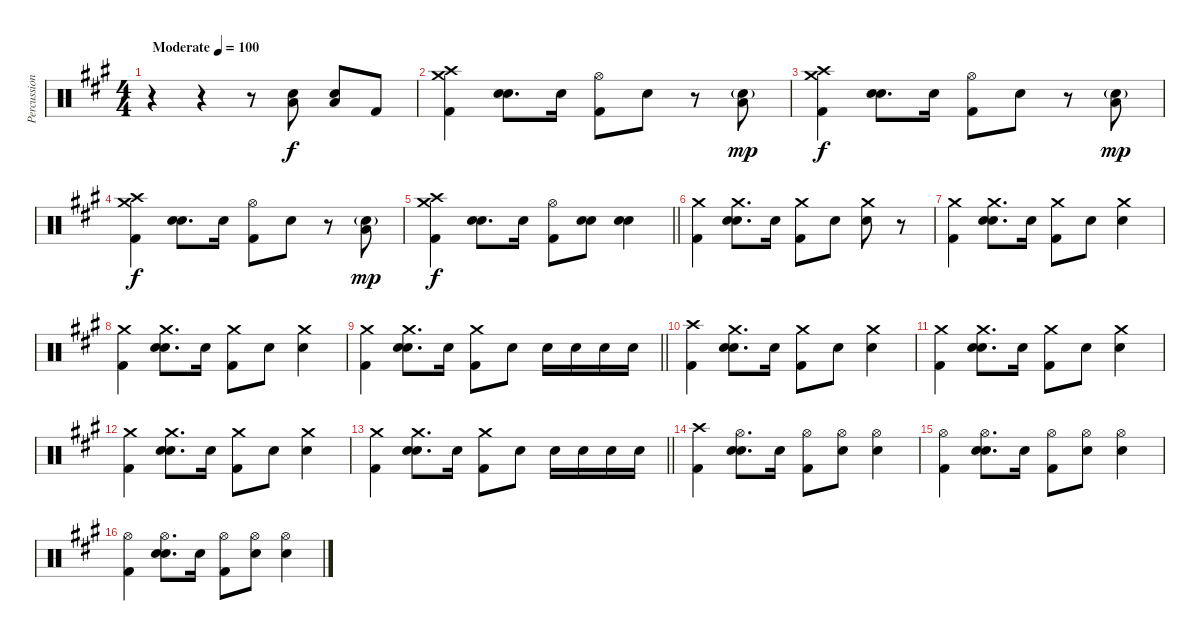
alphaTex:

\track ("Percussion" "Percussion") {instrument percussion}
\staff {score}
\articulation defaults
\ts (4 4)
\tempo (100 "Moderate")
\clef neutral
\ks f#minor
r.4{dy f} r.4 r.8 ("Low Tom (hit)" "Snare (hit) 2").8 ("Low Tom (hit)" "Snare (hit) 2").8 "Kick (hit) 2".8 |
("Crash high (hit)" "Crash medium (hit)" "Kick (hit) 2").4 ("Snare (hit) 2" "Snare (hit) 2").8{d} "Snare (hit) 2".16 ("Hi-Hat (open)" "Kick (hit) 2").8 "Snare (hit) 2".8 r.8 ("Snare (hit) 2"{g} "Low Tom (hit)").8{dy mp} |
("Crash high (hit)" "Crash medium (hit)" "Kick (hit) 2").4{dy f} ("Snare (hit) 2" "Snare (hit) 2").8{d} "Snare (hit) 2".16 ("Hi-Hat (open)" "Kick (hit) 2").8 "Snare (hit) 2".8 r.8 ("Snare (hit) 2"{g} "Low Tom (hit)").8{dy mp} |
("Crash high (hit)" "Crash medium (hit)" "Kick (hit) 2").4{dy f} ("Snare (hit) 2" "Snare (hit) 2").8{d} "Snare (hit) 2".16 ("Hi-Hat (open)" "Kick (hit) 2").8 "Snare (hit) 2".8 r.8 ("Snare (hit) 2"{g} "Low Tom (hit)").8{dy mp} |
\barLineRight lightlight
("Crash high (hit)" "Crash medium (hit)" "Kick (hit) 2").4{dy f} ("Snare (hit) 2" "Snare (hit) 2").8{d} "Snare (hit) 2".16 ("Hi-Hat (open)" "Kick (hit) 2").8 ("Snare (hit) 2" "Snare (hit) 2").8 ("Snare (hit) 2" "Snare (hit) 2").4 |
("Crash medium (hit)" "Kick (hit) 2").4 ("Crash medium (hit)" "Snare (hit) 2" "Snare (hit) 2").8{d} "Snare (hit) 2".16 ("Crash medium (hit)" "Kick (hit) 2").8 "Snare (hit) 2".8 ("Crash medium (hit)" "Snare (hit) 2").8 r.8 |
("Crash medium (hit)" "Kick (hit) 2").4 ("Crash medium (hit)" "Snare (hit) 2" "Snare (hit) 2").8{d} "Snare (hit) 2".16 ("Crash medium (hit)" "Kick (hit) 2").8 "Snare (hit) 2".8 ("Crash medium (hit)" "Snare (hit) 2").4 |
("Crash medium (hit)" "Kick (hit) 2").4 ("Crash medium (hit)" "Snare (hit) 2" "Snare (hit) 2").8{d} "Snare (hit) 2".16 ("Crash medium (hit)" "Kick (hit) 2").8 "Snare (hit) 2".8 ("Crash medium (hit)" "Snare (hit) 2").4 |
\barLineRight lightlight
("Crash medium (hit)" "Kick (hit) 2").4 ("Crash medium (hit)" "Snare (hit) 2" "Snare (hit) 2").8{d} "Snare (hit) 2".16 ("Crash medium (hit)" "Kick (hit) 2").8 "Snare (hit) 2".8 "Snare (hit) 2".16 "Snare (hit) 2".16 "Snare (hit) 2".16 "Snare (hit) 2".16 |
("Crash high (hit)" "Kick (hit) 2").4 ("Crash medium (hit)" "Snare (hit) 2" "Snare (hit) 2").8{d} "Snare (hit) 2".16 ("Crash medium (hit)" "Kick (hit) 2").8 "Snare (hit) 2".8 ("Crash medium (hit)" "Snare (hit) 2").4 |
("Crash medium (hit)" "Kick (hit) 2").4 ("Crash medium (hit)" "Snare (hit) 2" "Snare (hit) 2").8{d} "Snare (hit) 2".16 ("Crash medium (hit)" "Kick (hit) 2").8 "Snare (hit) 2".8 ("Crash medium (hit)" "Snare (hit) 2").4 |
("Crash medium (hit)" "Kick (hit) 2").4 ("Crash medium (hit)" "Snare (hit) 2" "Snare (hit) 2").8{d} "Snare (hit) 2".16 ("Crash medium (hit)" "Kick (hit) 2").8 "Snare (hit) 2".8 ("Crash medium (hit)" "Snare (hit) 2").4 |
\barLineRight lightlight
("Crash medium (hit)" "Kick (hit) 2").4 ("Crash medium (hit)" "Snare (hit) 2" "Snare (hit) 2").8{d} "Snare (hit) 2".16 ("Crash medium (hit)" "Kick (hit) 2").8 "Snare (hit) 2".8 "Snare (hit) 2".16 "Snare (hit) 2".16 "Snare (hit) 2".16 "Snare (hit) 2".16 |
("Crash high (hit)" "Kick (hit) 2").4 ("Hi-Hat (open)" "Snare (hit) 2" "Snare (hit) 2").8{d} "Snare (hit) 2".16 ("Hi-Hat (open)" "Kick (hit) 2").8 ("Hi-Hat (open)" "Snare (hit) 2").8 ("Hi-Hat (open)" "Snare (hit) 2").4 |
("Hi-Hat (open)" "Kick (hit) 2").4 ("Hi-Hat (open)" "Snare (hit) 2" "Snare (hit) 2").8{d} "Snare (hit) 2".16 ("Hi-Hat (open)" "Kick (hit) 2").8 ("Hi-Hat (open)" "Snare (hit) 2").8 ("Hi-Hat (open)" "Snare (hit) 2").4 |
("Hi-Hat (open)" "Kick (hit) 2").4 ("Hi-Hat (open)" "Snare (hit) 2" "Snare (hit) 2").8{d} "Snare (hit) 2".16 ("Hi-Hat (open)" "Kick (hit) 2").8 ("Hi-Hat (open)" "Snare (hit) 2").8 ("Hi-Hat (open)" "Snare (hit) 2").4
